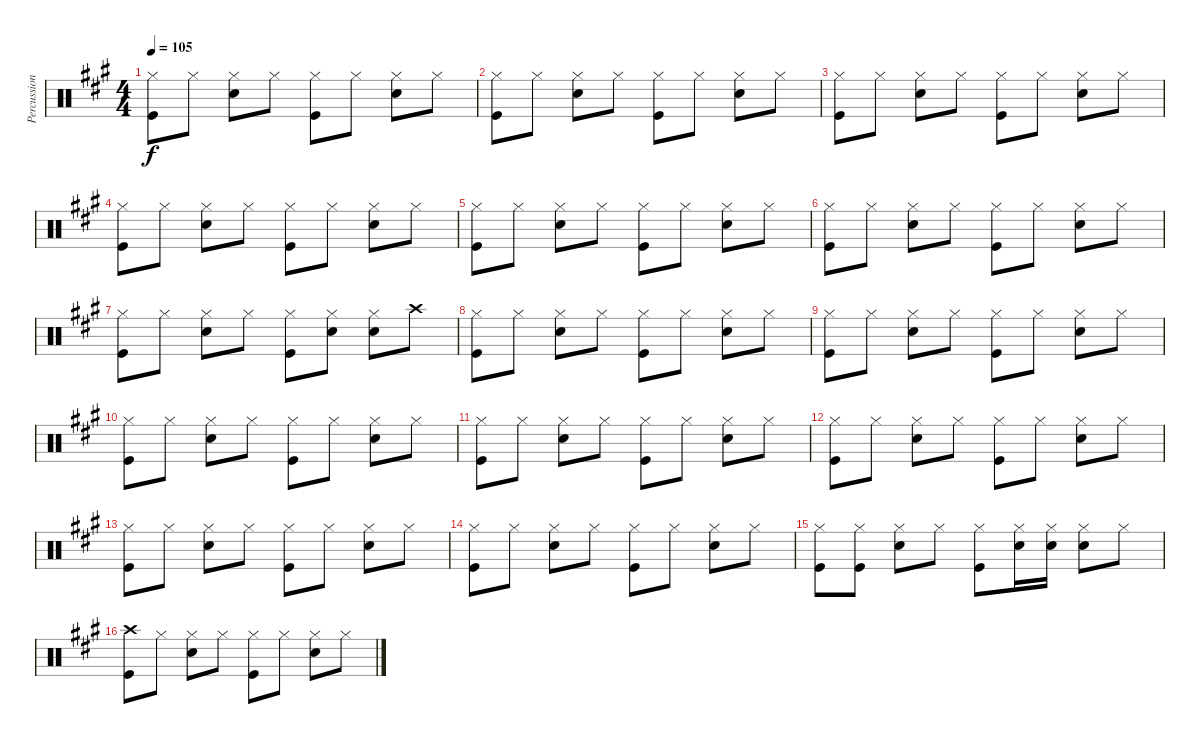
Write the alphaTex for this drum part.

\track ("Percussion" "Percussion") {instrument percussion}
\staff {score}
\articulation defaults
\ts (4 4)
\tempo 105
\clef neutral
\ks a
("Hi-Hat (closed)" "Kick (hit)").8{dy f} "Hi-Hat (closed)".8 ("Hi-Hat (closed)" "Snare (hit) 2").8 "Hi-Hat (closed)".8 ("Hi-Hat (closed)" "Kick (hit)").8 "Hi-Hat (closed)".8 ("Hi-Hat (closed)" "Snare (hit) 2").8 "Hi-Hat (closed)".8 |
("Hi-Hat (closed)" "Kick (hit)").8 "Hi-Hat (closed)".8 ("Hi-Hat (closed)" "Snare (hit) 2").8 "Hi-Hat (closed)".8 ("Hi-Hat (closed)" "Kick (hit)").8 "Hi-Hat (closed)".8 ("Hi-Hat (closed)" "Snare (hit) 2").8 "Hi-Hat (closed)".8 |
("Hi-Hat (closed)" "Kick (hit)").8 "Hi-Hat (closed)".8 ("Hi-Hat (closed)" "Snare (hit) 2").8 "Hi-Hat (closed)".8 ("Hi-Hat (closed)" "Kick (hit)").8 "Hi-Hat (closed)".8 ("Hi-Hat (closed)" "Snare (hit) 2").8 "Hi-Hat (closed)".8 |
("Hi-Hat (closed)" "Kick (hit)").8 "Hi-Hat (closed)".8 ("Hi-Hat (closed)" "Snare (hit) 2").8 "Hi-Hat (closed)".8 ("Hi-Hat (closed)" "Kick (hit)").8 "Hi-Hat (closed)".8 ("Hi-Hat (closed)" "Snare (hit) 2").8 "Hi-Hat (closed)".8 |
("Hi-Hat (closed)" "Kick (hit)").8 "Hi-Hat (closed)".8 ("Hi-Hat (closed)" "Snare (hit) 2").8 "Hi-Hat (closed)".8 ("Hi-Hat (closed)" "Kick (hit)").8 "Hi-Hat (closed)".8 ("Hi-Hat (closed)" "Snare (hit) 2").8 "Hi-Hat (closed)".8 |
("Hi-Hat (closed)" "Kick (hit)").8 "Hi-Hat (closed)".8 ("Hi-Hat (closed)" "Snare (hit) 2").8 "Hi-Hat (closed)".8 ("Hi-Hat (closed)" "Kick (hit)").8 "Hi-Hat (closed)".8 ("Hi-Hat (closed)" "Snare (hit) 2").8 "Hi-Hat (closed)".8 |
("Hi-Hat (closed)" "Kick (hit)").8 "Hi-Hat (closed)".8 ("Hi-Hat (closed)" "Snare (hit) 2").8 "Hi-Hat (closed)".8 ("Hi-Hat (closed)" "Kick (hit)").8 ("Hi-Hat (closed)" "Snare (hit) 2").8 ("Hi-Hat (closed)" "Snare (hit) 2").8 "Crash high (hit)".8 |
("Hi-Hat (closed)" "Kick (hit)").8 "Hi-Hat (closed)".8 ("Hi-Hat (closed)" "Snare (hit) 2").8 "Hi-Hat (closed)".8 ("Hi-Hat (closed)" "Kick (hit)").8 "Hi-Hat (closed)".8 ("Hi-Hat (closed)" "Snare (hit) 2").8 "Hi-Hat (closed)".8 |
("Hi-Hat (closed)" "Kick (hit)").8 "Hi-Hat (closed)".8 ("Hi-Hat (closed)" "Snare (hit) 2").8 "Hi-Hat (closed)".8 ("Hi-Hat (closed)" "Kick (hit)").8 "Hi-Hat (closed)".8 ("Hi-Hat (closed)" "Snare (hit) 2").8 "Hi-Hat (closed)".8 |
("Hi-Hat (closed)" "Kick (hit)").8 "Hi-Hat (closed)".8 ("Hi-Hat (closed)" "Snare (hit) 2").8 "Hi-Hat (closed)".8 ("Hi-Hat (closed)" "Kick (hit)").8 "Hi-Hat (closed)".8 ("Hi-Hat (closed)" "Snare (hit) 2").8 "Hi-Hat (closed)".8 |
("Hi-Hat (closed)" "Kick (hit)").8 "Hi-Hat (closed)".8 ("Hi-Hat (closed)" "Snare (hit) 2").8 "Hi-Hat (closed)".8 ("Hi-Hat (closed)" "Kick (hit)").8 "Hi-Hat (closed)".8 ("Hi-Hat (closed)" "Snare (hit) 2").8 "Hi-Hat (closed)".8 |
("Hi-Hat (closed)" "Kick (hit)").8 "Hi-Hat (closed)".8 ("Hi-Hat (closed)" "Snare (hit) 2").8 "Hi-Hat (closed)".8 ("Hi-Hat (closed)" "Kick (hit)").8 "Hi-Hat (closed)".8 ("Hi-Hat (closed)" "Snare (hit) 2").8 "Hi-Hat (closed)".8 |
("Hi-Hat (closed)" "Kick (hit)").8 "Hi-Hat (closed)".8 ("Hi-Hat (closed)" "Snare (hit) 2").8 "Hi-Hat (closed)".8 ("Hi-Hat (closed)" "Kick (hit)").8 "Hi-Hat (closed)".8 ("Hi-Hat (closed)" "Snare (hit) 2").8 "Hi-Hat (closed)".8 |
("Hi-Hat (closed)" "Kick (hit)").8 "Hi-Hat (closed)".8 ("Hi-Hat (closed)" "Snare (hit) 2").8 "Hi-Hat (closed)".8 ("Hi-Hat (closed)" "Kick (hit)").8 "Hi-Hat (closed)".8 ("Hi-Hat (closed)" "Snare (hit) 2").8 "Hi-Hat (closed)".8 |
("Hi-Hat (closed)" "Kick (hit)").8 ("Hi-Hat (closed)" "Kick (hit)").8 ("Hi-Hat (closed)" "Snare (hit) 2").8 "Hi-Hat (closed)".8 ("Hi-Hat (closed)" "Kick (hit)").8 ("Hi-Hat (closed)" "Snare (hit) 2").16 ("Hi-Hat (closed)" "Snare (hit) 2").16 ("Hi-Hat (closed)" "Snare (hit) 2").8 "Hi-Hat (closed)".8 |
("Crash high (hit)" "Kick (hit)").8 "Hi-Hat (closed)".8 ("Hi-Hat (closed)" "Snare (hit) 2").8 "Hi-Hat (closed)".8 ("Hi-Hat (closed)" "Kick (hit)").8 "Hi-Hat (closed)".8 ("Hi-Hat (closed)" "Snare (hit) 2").8 "Hi-Hat (closed)".8
